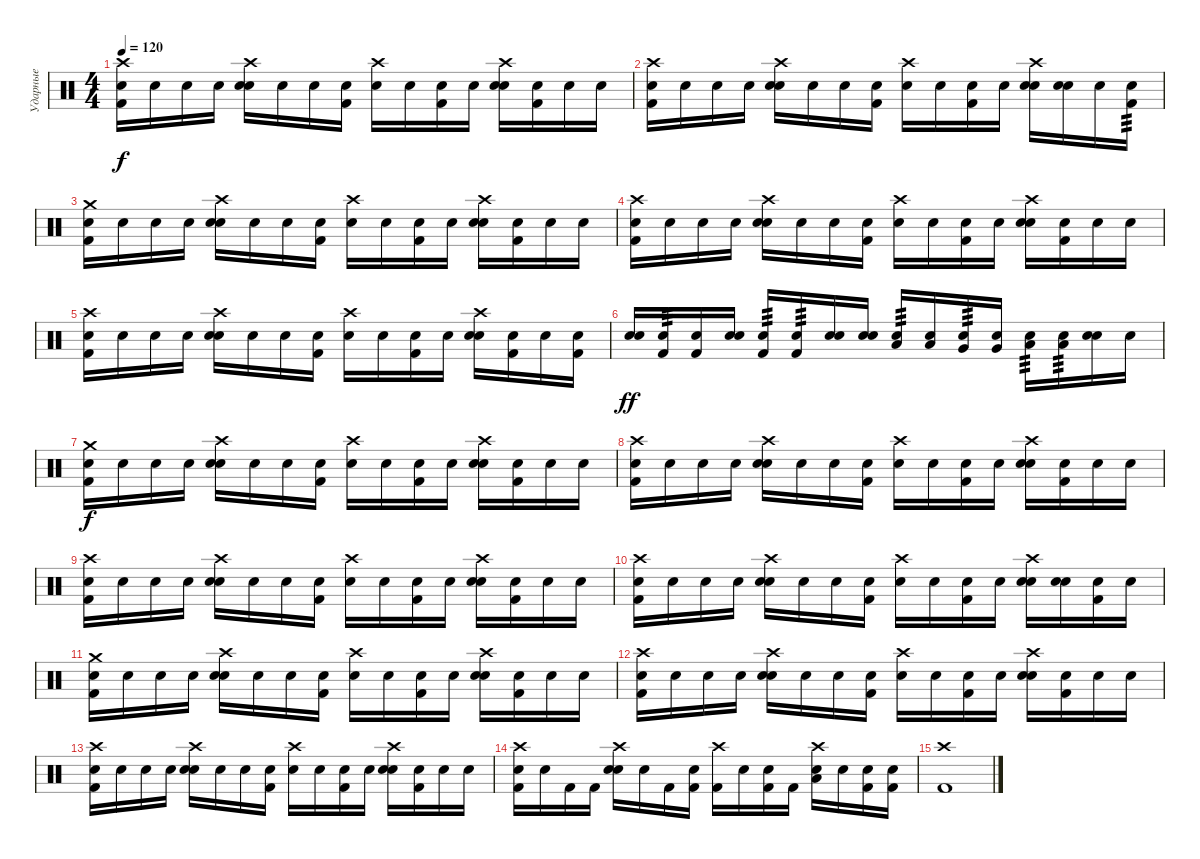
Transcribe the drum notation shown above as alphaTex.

\track ("Ударные" "Ударные") {instrument percussion}
\staff {score}
\articulation defaults
\ts (4 4)
\tempo 120
\clef neutral
\ks c
("Crash high (hit)" "Kick (hit) 2" "Snare (hit)").16{dy f} "Snare (hit)".16 "Snare (hit)".16 "Snare (hit)".16 ("Crash high (hit)" "Snare (hit) 2" "Snare (hit)").16 "Snare (hit)".16 "Snare (hit)".16 ("Kick (hit) 2" "Snare (hit)").16 ("Crash high (hit)" "Snare (hit)").16 "Snare (hit)".16 ("Kick (hit) 2" "Snare (hit)").16 "Snare (hit)".16 ("Crash high (hit)" "Snare (hit) 2" "Snare (hit)").16 ("Kick (hit) 2" "Snare (hit)").16 "Snare (hit)".16 "Snare (hit)".16 |
("Crash high (hit)" "Kick (hit) 2" "Snare (hit)").16 "Snare (hit)".16 "Snare (hit)".16 "Snare (hit)".16 ("Crash high (hit)" "Snare (hit) 2" "Snare (hit)").16 "Snare (hit)".16 "Snare (hit)".16 ("Kick (hit) 2" "Snare (hit)").16 ("Crash high (hit)" "Snare (hit)").16 "Snare (hit)".16 ("Kick (hit) 2" "Snare (hit)").16 "Snare (hit)".16 ("Crash high (hit)" "Snare (hit) 2" "Snare (hit)").16 ("Snare (hit) 2" "Snare (hit)").16 "Snare (hit)".16 ("Kick (hit) 2" "Snare (hit)").16{tp 3} |
("Crash medium (hit)" "Kick (hit) 2" "Snare (hit)").16 "Snare (hit)".16 "Snare (hit)".16 "Snare (hit)".16 ("Crash high (hit)" "Snare (hit) 2" "Snare (hit)").16 "Snare (hit)".16 "Snare (hit)".16 ("Kick (hit) 2" "Snare (hit)").16 ("Crash high (hit)" "Snare (hit)").16 "Snare (hit)".16 ("Kick (hit) 2" "Snare (hit)").16 "Snare (hit)".16 ("Crash high (hit)" "Snare (hit) 2" "Snare (hit)").16 ("Kick (hit) 2" "Snare (hit)").16 "Snare (hit)".16 "Snare (hit)".16 |
("Crash high (hit)" "Kick (hit) 2" "Snare (hit)").16 "Snare (hit)".16 "Snare (hit)".16 "Snare (hit)".16 ("Crash high (hit)" "Snare (hit) 2" "Snare (hit)").16 "Snare (hit)".16 "Snare (hit)".16 ("Kick (hit) 2" "Snare (hit)").16 ("Crash high (hit)" "Snare (hit)").16 "Snare (hit)".16 ("Kick (hit) 2" "Snare (hit)").16 "Snare (hit)".16 ("Crash high (hit)" "Snare (hit) 2" "Snare (hit)").16 ("Kick (hit) 2" "Snare (hit)").16 "Snare (hit)".16 "Snare (hit)".16 |
("Crash high (hit)" "Kick (hit) 2" "Snare (hit)").16 "Snare (hit)".16 "Snare (hit)".16 "Snare (hit)".16 ("Crash high (hit)" "Snare (hit) 2" "Snare (hit)").16 "Snare (hit)".16 "Snare (hit)".16 ("Kick (hit) 2" "Snare (hit)").16 ("Crash high (hit)" "Snare (hit)").16 "Snare (hit)".16 ("Kick (hit) 2" "Snare (hit)").16 "Snare (hit)".16 ("Crash high (hit)" "Snare (hit) 2" "Snare (hit)").16 ("Kick (hit) 2" "Snare (hit)").16 "Snare (hit)".16 ("Kick (hit) 2" "Snare (hit)").16 |
("Snare (hit)" "Snare (hit) 2").16{dy ff} ("Snare (hit)" "Kick (hit) 2").16{tp 3} ("Snare (hit)" "Kick (hit) 2").16 ("Snare (hit)" "Snare (hit) 2").16 ("Snare (hit)" "Kick (hit) 2").16{tp 3} ("Snare (hit)" "Kick (hit) 2").16{tp 3} ("Snare (hit)" "Snare (hit) 2").16 ("Snare (hit)" "Snare (hit) 2").16 ("Snare (hit)" "Low Tom (hit)").16{tp 3} ("Snare (hit)" "Low Tom (hit)").16 ("Snare (hit)" "Very Low Tom (hit)").16{tp 3} ("Snare (hit)" "Very Low Tom (hit)").16 ("Snare (hit)" "Low Floor Tom (hit)").16{tp 3} ("Snare (hit)" "Low Floor Tom (hit)").16{tp 3} ("Snare (hit)" "Snare (hit) 2").16 "Snare (hit)".16 |
("Crash medium (hit)" "Kick (hit) 2" "Snare (hit)").16{dy f} "Snare (hit)".16 "Snare (hit)".16 "Snare (hit)".16 ("Crash high (hit)" "Snare (hit) 2" "Snare (hit)").16 "Snare (hit)".16 "Snare (hit)".16 ("Kick (hit) 2" "Snare (hit)").16 ("Crash high (hit)" "Snare (hit)").16 "Snare (hit)".16 ("Kick (hit) 2" "Snare (hit)").16 "Snare (hit)".16 ("Crash high (hit)" "Snare (hit) 2" "Snare (hit)").16 ("Kick (hit) 2" "Snare (hit)").16 "Snare (hit)".16 "Snare (hit)".16 |
("Crash high (hit)" "Kick (hit) 2" "Snare (hit)").16 "Snare (hit)".16 "Snare (hit)".16 "Snare (hit)".16 ("Crash high (hit)" "Snare (hit) 2" "Snare (hit)").16 "Snare (hit)".16 "Snare (hit)".16 ("Kick (hit) 2" "Snare (hit)").16 ("Crash high (hit)" "Snare (hit)").16 "Snare (hit)".16 ("Kick (hit) 2" "Snare (hit)").16 "Snare (hit)".16 ("Crash high (hit)" "Snare (hit) 2" "Snare (hit)").16 ("Kick (hit) 2" "Snare (hit)").16 "Snare (hit)".16 "Snare (hit)".16 |
("Crash high (hit)" "Kick (hit) 2" "Snare (hit)").16 "Snare (hit)".16 "Snare (hit)".16 "Snare (hit)".16 ("Crash high (hit)" "Snare (hit) 2" "Snare (hit)").16 "Snare (hit)".16 "Snare (hit)".16 ("Kick (hit) 2" "Snare (hit)").16 ("Crash high (hit)" "Snare (hit)").16 "Snare (hit)".16 ("Kick (hit) 2" "Snare (hit)").16 "Snare (hit)".16 ("Crash high (hit)" "Snare (hit) 2" "Snare (hit)").16 ("Kick (hit) 2" "Snare (hit)").16 "Snare (hit)".16 "Snare (hit)".16 |
("Crash high (hit)" "Kick (hit) 2" "Snare (hit)").16 "Snare (hit)".16 "Snare (hit)".16 "Snare (hit)".16 ("Crash high (hit)" "Snare (hit) 2" "Snare (hit)").16 "Snare (hit)".16 "Snare (hit)".16 ("Kick (hit) 2" "Snare (hit)").16 ("Crash high (hit)" "Snare (hit)").16 "Snare (hit)".16 ("Kick (hit) 2" "Snare (hit)").16 "Snare (hit)".16 ("Crash high (hit)" "Snare (hit) 2" "Snare (hit)").16 ("Snare (hit) 2" "Snare (hit)").16 ("Kick (hit) 2" "Snare (hit)").16 "Snare (hit)".16 |
("Crash medium (hit)" "Kick (hit) 2" "Snare (hit)").16 "Snare (hit)".16 "Snare (hit)".16 "Snare (hit)".16 ("Crash high (hit)" "Snare (hit) 2" "Snare (hit)").16 "Snare (hit)".16 "Snare (hit)".16 ("Kick (hit) 2" "Snare (hit)").16 ("Crash high (hit)" "Snare (hit)").16 "Snare (hit)".16 ("Kick (hit) 2" "Snare (hit)").16 "Snare (hit)".16 ("Crash high (hit)" "Snare (hit) 2" "Snare (hit)").16 ("Kick (hit) 2" "Snare (hit)").16 "Snare (hit)".16 "Snare (hit)".16 |
("Crash high (hit)" "Kick (hit) 2" "Snare (hit)").16 "Snare (hit)".16 "Snare (hit)".16 "Snare (hit)".16 ("Crash high (hit)" "Snare (hit) 2" "Snare (hit)").16 "Snare (hit)".16 "Snare (hit)".16 ("Kick (hit) 2" "Snare (hit)").16 ("Crash high (hit)" "Snare (hit)").16 "Snare (hit)".16 ("Kick (hit) 2" "Snare (hit)").16 "Snare (hit)".16 ("Crash high (hit)" "Snare (hit) 2" "Snare (hit)").16 ("Kick (hit) 2" "Snare (hit)").16 "Snare (hit)".16 "Snare (hit)".16 |
("Crash high (hit)" "Kick (hit) 2" "Snare (hit)").16 "Snare (hit)".16 "Snare (hit)".16 "Snare (hit)".16 ("Crash high (hit)" "Snare (hit) 2" "Snare (hit)").16 "Snare (hit)".16 "Snare (hit)".16 ("Kick (hit) 2" "Snare (hit)").16 ("Crash high (hit)" "Snare (hit)").16 "Snare (hit)".16 ("Kick (hit) 2" "Snare (hit)").16 "Snare (hit)".16 ("Crash high (hit)" "Snare (hit) 2" "Snare (hit)").16 ("Kick (hit) 2" "Snare (hit)").16 "Snare (hit)".16 "Snare (hit)".16 |
("Crash high (hit)" "Kick (hit) 2" "Snare (hit)").16 "Snare (hit)".16 "Kick (hit) 2".16 "Kick (hit) 2".16 ("Crash high (hit)" "Snare (hit) 2" "Snare (hit)").16 "Snare (hit)".16 "Kick (hit) 2".16 ("Kick (hit) 2" "Snare (hit)").16 ("Crash high (hit)" "Kick (hit) 2").16 "Snare (hit)".16 ("Kick (hit) 2" "Snare (hit)").16 "Kick (hit) 2".16 ("Crash high (hit)" "Low Floor Tom (hit)" "Snare (hit)").16 "Snare (hit)".16 ("Kick (hit) 2" "Snare (hit)").16 ("Kick (hit) 2" "Snare (hit)").16 |
("Crash high (hit)" "Kick (hit) 2").1
